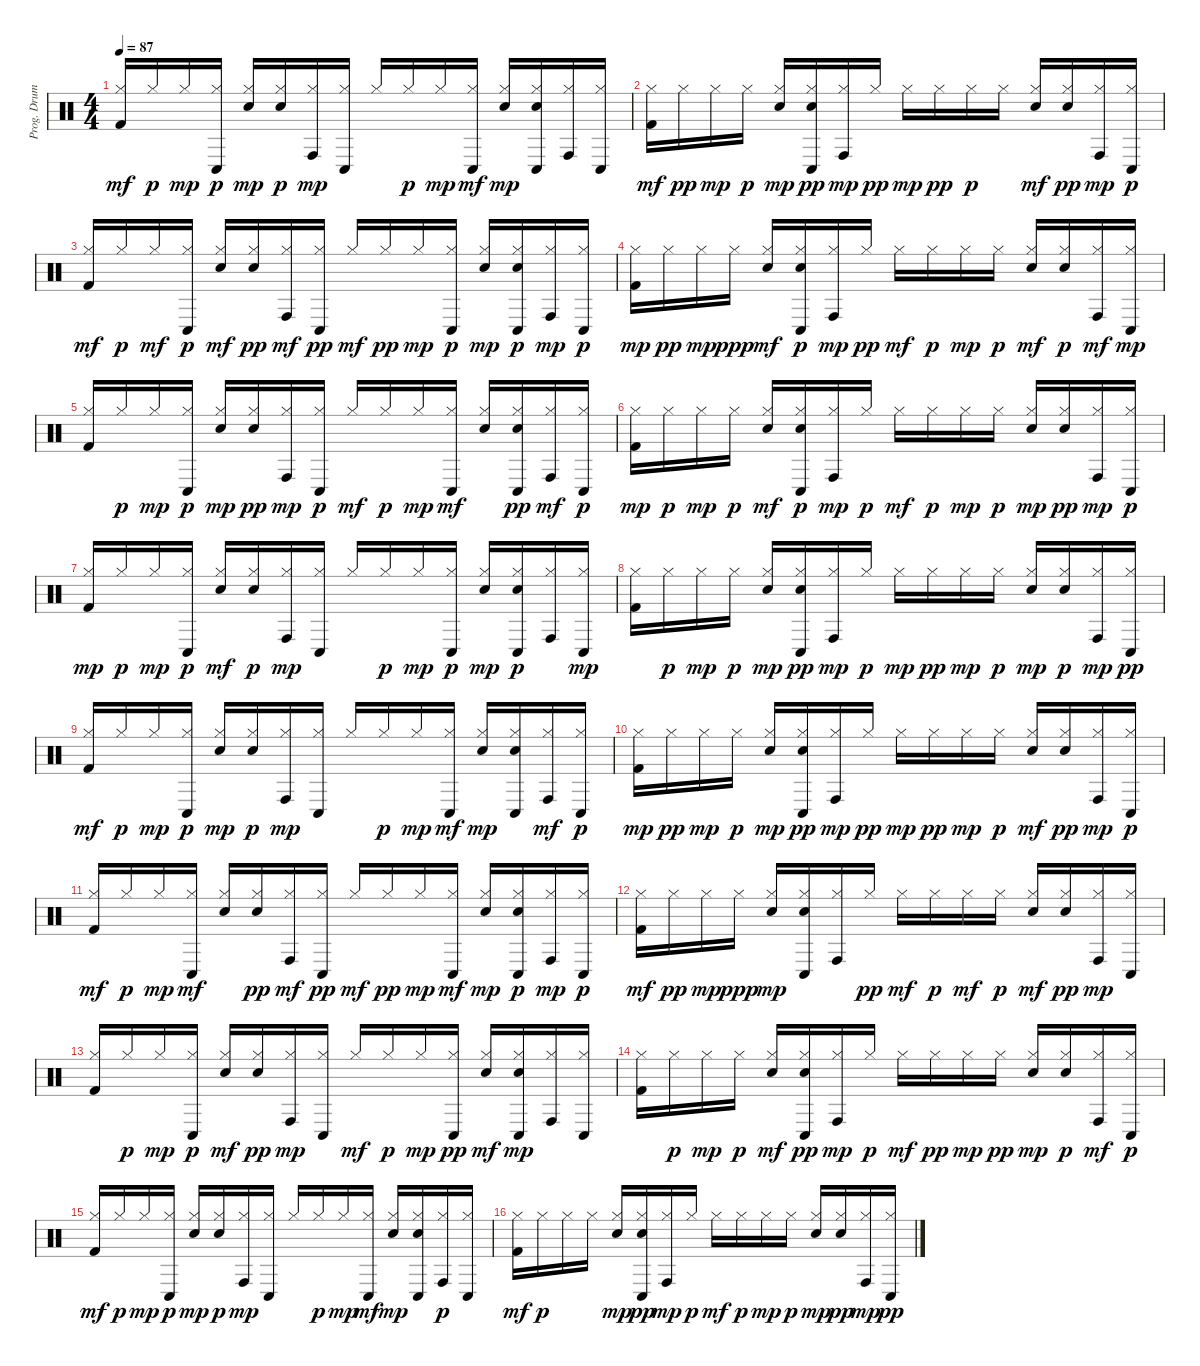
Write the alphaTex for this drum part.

\track ("Prog. Drums" "Prog. Drum") {instrument percussion}
\staff {score}
\articulation defaults
\ts (4 4)
\tempo 87
\clef neutral
\ks c
("Hi-Hat (closed)" "Kick (hit) 2").16{dy mf} "Hi-Hat (closed)".16{dy p} "Hi-Hat (closed)".16{dy mp} ("Conga low (hit)" "Hi-Hat (closed)").16{dy p} ("Snare (hit) 2" "Hi-Hat (closed)").16{dy mp} ("Snare (hit) 2" "Hi-Hat (closed)").16{dy p} ("Conga high (hit)" "Hi-Hat (closed)").16{dy mp} ("Hi-Hat (closed)" "Conga low (hit)").16 "Hi-Hat (closed)".16 "Hi-Hat (closed)".16{dy p} "Hi-Hat (closed)".16{dy mp} ("Hi-Hat (closed)" "Conga low (hit)").16{dy mf} ("Snare (hit) 2" "Hi-Hat (closed)").16{dy mp} ("Hi-Hat (closed)" "Snare (hit) 2" "Conga low (hit)").16 ("Conga high (hit)" "Hi-Hat (closed)").16 ("Hi-Hat (closed)" "Conga low (hit)").16 |
("Hi-Hat (closed)" "Kick (hit) 2").16{dy mf} "Hi-Hat (closed)".16{dy pp} "Hi-Hat (closed)".16{dy mp} "Hi-Hat (closed)".16{dy p} ("Snare (hit) 2" "Hi-Hat (closed)").16{dy mp} ("Snare (hit) 2" "Conga low (hit)" "Hi-Hat (closed)").16{dy pp} ("Conga high (hit)" "Hi-Hat (closed)").16{dy mp} "Hi-Hat (closed)".16{dy pp} "Hi-Hat (closed)".16{dy mp} "Hi-Hat (closed)".16{dy pp} "Hi-Hat (closed)".16{dy p} "Hi-Hat (closed)".16 ("Snare (hit) 2" "Hi-Hat (closed)").16{dy mf} ("Snare (hit) 2" "Hi-Hat (closed)").16{dy pp} ("Conga high (hit)" "Hi-Hat (closed)").16{dy mp} ("Conga low (hit)" "Hi-Hat (closed)").16{dy p} |
("Kick (hit) 2" "Hi-Hat (closed)").16{dy mf} "Hi-Hat (closed)".16{dy p} "Hi-Hat (closed)".16{dy mf} ("Conga low (hit)" "Hi-Hat (closed)").16{dy p} ("Snare (hit) 2" "Hi-Hat (closed)").16{dy mf} ("Snare (hit) 2" "Hi-Hat (closed)").16{dy pp} ("Conga high (hit)" "Hi-Hat (closed)").16{dy mf} ("Conga low (hit)" "Hi-Hat (closed)").16{dy pp} "Hi-Hat (closed)".16{dy mf} "Hi-Hat (closed)".16{dy pp} "Hi-Hat (closed)".16{dy mp} ("Conga low (hit)" "Hi-Hat (closed)").16{dy p} ("Snare (hit) 2" "Hi-Hat (closed)").16{dy mp} ("Snare (hit) 2" "Conga low (hit)" "Hi-Hat (closed)").16{dy p} ("Conga high (hit)" "Hi-Hat (closed)").16{dy mp} ("Conga low (hit)" "Hi-Hat (closed)").16{dy p} |
("Kick (hit) 2" "Hi-Hat (closed)").16{dy mp} "Hi-Hat (closed)".16{dy pp} "Hi-Hat (closed)".16{dy mp} "Hi-Hat (closed)".16{dy ppp} ("Hi-Hat (closed)" "Snare (hit) 2").16{dy mf} ("Snare (hit) 2" "Conga low (hit)" "Hi-Hat (closed)").16{dy p} ("Conga high (hit)" "Hi-Hat (closed)").16{dy mp} "Hi-Hat (closed)".16{dy pp} "Hi-Hat (closed)".16{dy mf} "Hi-Hat (closed)".16{dy p} "Hi-Hat (closed)".16{dy mp} "Hi-Hat (closed)".16{dy p} ("Hi-Hat (closed)" "Snare (hit) 2").16{dy mf} ("Snare (hit) 2" "Hi-Hat (closed)").16{dy p} ("Conga high (hit)" "Hi-Hat (closed)").16{dy mf} ("Hi-Hat (closed)" "Conga low (hit)").16{dy mp} |
("Kick (hit) 2" "Hi-Hat (closed)").16 "Hi-Hat (closed)".16{dy p} "Hi-Hat (closed)".16{dy mp} ("Conga low (hit)" "Hi-Hat (closed)").16{dy p} ("Snare (hit) 2" "Hi-Hat (closed)").16{dy mp} ("Snare (hit) 2" "Hi-Hat (closed)").16{dy pp} ("Conga high (hit)" "Hi-Hat (closed)").16{dy mp} ("Conga low (hit)" "Hi-Hat (closed)").16{dy p} "Hi-Hat (closed)".16{dy mf} "Hi-Hat (closed)".16{dy p} "Hi-Hat (closed)".16{dy mp} ("Hi-Hat (closed)" "Conga low (hit)").16{dy mf} ("Snare (hit) 2" "Hi-Hat (closed)").16 ("Snare (hit) 2" "Conga low (hit)" "Hi-Hat (closed)").16{dy pp} ("Hi-Hat (closed)" "Conga high (hit)").16{dy mf} ("Conga low (hit)" "Hi-Hat (closed)").16{dy p} |
("Kick (hit) 2" "Hi-Hat (closed)").16{dy mp} "Hi-Hat (closed)".16{dy p} "Hi-Hat (closed)".16{dy mp} "Hi-Hat (closed)".16{dy p} ("Hi-Hat (closed)" "Snare (hit) 2").16{dy mf} ("Snare (hit) 2" "Conga low (hit)" "Hi-Hat (closed)").16{dy p} ("Conga high (hit)" "Hi-Hat (closed)").16{dy mp} "Hi-Hat (closed)".16{dy p} "Hi-Hat (closed)".16{dy mf} "Hi-Hat (closed)".16{dy p} "Hi-Hat (closed)".16{dy mp} "Hi-Hat (closed)".16{dy p} ("Snare (hit) 2" "Hi-Hat (closed)").16{dy mp} ("Hi-Hat (closed)" "Snare (hit) 2").16{dy pp} ("Conga high (hit)" "Hi-Hat (closed)").16{dy mp} ("Conga low (hit)" "Hi-Hat (closed)").16{dy p} |
("Kick (hit) 2" "Hi-Hat (closed)").16{dy mp} "Hi-Hat (closed)".16{dy p} "Hi-Hat (closed)".16{dy mp} ("Conga low (hit)" "Hi-Hat (closed)").16{dy p} ("Snare (hit) 2" "Hi-Hat (closed)").16{dy mf} ("Snare (hit) 2" "Hi-Hat (closed)").16{dy p} ("Conga high (hit)" "Hi-Hat (closed)").16{dy mp} ("Hi-Hat (closed)" "Conga low (hit)").16 "Hi-Hat (closed)".16 "Hi-Hat (closed)".16{dy p} "Hi-Hat (closed)".16{dy mp} ("Conga low (hit)" "Hi-Hat (closed)").16{dy p} ("Snare (hit) 2" "Hi-Hat (closed)").16{dy mp} ("Conga low (hit)" "Snare (hit) 2" "Hi-Hat (closed)").16{dy p} ("Conga high (hit)" "Hi-Hat (closed)").16 ("Hi-Hat (closed)" "Conga low (hit)").16{dy mp} |
("Kick (hit) 2" "Hi-Hat (closed)").16 "Hi-Hat (closed)".16{dy p} "Hi-Hat (closed)".16{dy mp} "Hi-Hat (closed)".16{dy p} ("Snare (hit) 2" "Hi-Hat (closed)").16{dy mp} ("Conga low (hit)" "Hi-Hat (closed)" "Snare (hit) 2").16{dy pp} ("Conga high (hit)" "Hi-Hat (closed)").16{dy mp} "Hi-Hat (closed)".16{dy p} "Hi-Hat (closed)".16{dy mp} "Hi-Hat (closed)".16{dy pp} "Hi-Hat (closed)".16{dy mp} "Hi-Hat (closed)".16{dy p} ("Snare (hit) 2" "Hi-Hat (closed)").16{dy mp} ("Snare (hit) 2" "Hi-Hat (closed)").16{dy p} ("Conga high (hit)" "Hi-Hat (closed)").16{dy mp} ("Conga low (hit)" "Hi-Hat (closed)").16{dy pp} |
("Kick (hit) 2" "Hi-Hat (closed)").16{dy mf} "Hi-Hat (closed)".16{dy p} "Hi-Hat (closed)".16{dy mp} ("Conga low (hit)" "Hi-Hat (closed)").16{dy p} ("Snare (hit) 2" "Hi-Hat (closed)").16{dy mp} ("Snare (hit) 2" "Hi-Hat (closed)").16{dy p} ("Conga high (hit)" "Hi-Hat (closed)").16{dy mp} ("Hi-Hat (closed)" "Conga low (hit)").16 "Hi-Hat (closed)".16 "Hi-Hat (closed)".16{dy p} "Hi-Hat (closed)".16{dy mp} ("Hi-Hat (closed)" "Conga low (hit)").16{dy mf} ("Snare (hit) 2" "Hi-Hat (closed)").16{dy mp} ("Hi-Hat (closed)" "Snare (hit) 2" "Conga low (hit)").16 ("Hi-Hat (closed)" "Conga high (hit)").16{dy mf} ("Conga low (hit)" "Hi-Hat (closed)").16{dy p} |
("Kick (hit) 2" "Hi-Hat (closed)").16{dy mp} "Hi-Hat (closed)".16{dy pp} "Hi-Hat (closed)".16{dy mp} "Hi-Hat (closed)".16{dy p} ("Snare (hit) 2" "Hi-Hat (closed)").16{dy mp} ("Conga low (hit)" "Hi-Hat (closed)" "Snare (hit) 2").16{dy pp} ("Hi-Hat (closed)" "Conga high (hit)").16{dy mp} "Hi-Hat (closed)".16{dy pp} "Hi-Hat (closed)".16{dy mp} "Hi-Hat (closed)".16{dy pp} "Hi-Hat (closed)".16{dy mp} "Hi-Hat (closed)".16{dy p} ("Snare (hit) 2" "Hi-Hat (closed)").16{dy mf} ("Snare (hit) 2" "Hi-Hat (closed)").16{dy pp} ("Conga high (hit)" "Hi-Hat (closed)").16{dy mp} ("Conga low (hit)" "Hi-Hat (closed)").16{dy p} |
("Hi-Hat (closed)" "Kick (hit) 2").16{dy mf} "Hi-Hat (closed)".16{dy p} "Hi-Hat (closed)".16{dy mp} ("Hi-Hat (closed)" "Conga low (hit)").16{dy mf} ("Snare (hit) 2" "Hi-Hat (closed)").16 ("Snare (hit) 2" "Hi-Hat (closed)").16{dy pp} ("Conga high (hit)" "Hi-Hat (closed)").16{dy mf} ("Conga low (hit)" "Hi-Hat (closed)").16{dy pp} "Hi-Hat (closed)".16{dy mf} "Hi-Hat (closed)".16{dy pp} "Hi-Hat (closed)".16{dy mp} ("Hi-Hat (closed)" "Conga low (hit)").16{dy mf} ("Snare (hit) 2" "Hi-Hat (closed)").16{dy mp} ("Snare (hit) 2" "Conga low (hit)" "Hi-Hat (closed)").16{dy p} ("Hi-Hat (closed)" "Conga high (hit)").16{dy mp} ("Conga low (hit)" "Hi-Hat (closed)").16{dy p} |
("Hi-Hat (closed)" "Kick (hit) 2").16{dy mf} "Hi-Hat (closed)".16{dy pp} "Hi-Hat (closed)".16{dy mp} "Hi-Hat (closed)".16{dy ppp} ("Snare (hit) 2" "Hi-Hat (closed)").16{dy mp} ("Hi-Hat (closed)" "Snare (hit) 2" "Conga low (hit)").16 ("Conga high (hit)" "Hi-Hat (closed)").16 "Hi-Hat (closed)".16{dy pp} "Hi-Hat (closed)".16{dy mf} "Hi-Hat (closed)".16{dy p} "Hi-Hat (closed)".16{dy mf} "Hi-Hat (closed)".16{dy p} ("Hi-Hat (closed)" "Snare (hit) 2").16{dy mf} ("Hi-Hat (closed)" "Snare (hit) 2").16{dy pp} ("Conga high (hit)" "Hi-Hat (closed)").16{dy mp} ("Hi-Hat (closed)" "Conga low (hit)").16 |
("Kick (hit) 2" "Hi-Hat (closed)").16 "Hi-Hat (closed)".16{dy p} "Hi-Hat (closed)".16{dy mp} ("Conga low (hit)" "Hi-Hat (closed)").16{dy p} ("Snare (hit) 2" "Hi-Hat (closed)").16{dy mf} ("Snare (hit) 2" "Hi-Hat (closed)").16{dy pp} ("Conga high (hit)" "Hi-Hat (closed)").16{dy mp} ("Hi-Hat (closed)" "Conga low (hit)").16 "Hi-Hat (closed)".16{dy mf} "Hi-Hat (closed)".16{dy p} "Hi-Hat (closed)".16{dy mp} ("Conga low (hit)" "Hi-Hat (closed)").16{dy pp} ("Hi-Hat (closed)" "Snare (hit) 2").16{dy mf} ("Snare (hit) 2" "Hi-Hat (closed)" "Conga low (hit)").16{dy mp} ("Conga high (hit)" "Hi-Hat (closed)").16 ("Hi-Hat (closed)" "Conga low (hit)").16 |
("Kick (hit) 2" "Hi-Hat (closed)").16 "Hi-Hat (closed)".16{dy p} "Hi-Hat (closed)".16{dy mp} "Hi-Hat (closed)".16{dy p} ("Hi-Hat (closed)" "Snare (hit) 2").16{dy mf} ("Conga low (hit)" "Hi-Hat (closed)" "Snare (hit) 2").16{dy pp} ("Conga high (hit)" "Hi-Hat (closed)").16{dy mp} "Hi-Hat (closed)".16{dy p} "Hi-Hat (closed)".16{dy mf} "Hi-Hat (closed)".16{dy pp} "Hi-Hat (closed)".16{dy mp} "Hi-Hat (closed)".16{dy pp} ("Snare (hit) 2" "Hi-Hat (closed)").16{dy mp} ("Snare (hit) 2" "Hi-Hat (closed)").16{dy p} ("Hi-Hat (closed)" "Conga high (hit)").16{dy mf} ("Conga low (hit)" "Hi-Hat (closed)").16{dy p} |
("Hi-Hat (closed)" "Kick (hit) 2").16{dy mf} "Hi-Hat (closed)".16{dy p} "Hi-Hat (closed)".16{dy mp} ("Conga low (hit)" "Hi-Hat (closed)").16{dy p} ("Snare (hit) 2" "Hi-Hat (closed)").16{dy mp} ("Snare (hit) 2" "Hi-Hat (closed)").16{dy p} ("Conga high (hit)" "Hi-Hat (closed)").16{dy mp} ("Hi-Hat (closed)" "Conga low (hit)").16 "Hi-Hat (closed)".16 "Hi-Hat (closed)".16{dy p} "Hi-Hat (closed)".16{dy mp} ("Hi-Hat (closed)" "Conga low (hit)").16{dy mf} ("Hi-Hat (closed)" "Snare (hit) 2").16{dy mp} ("Snare (hit) 2" "Hi-Hat (closed)" "Conga low (hit)").16 ("Conga high (hit)" "Hi-Hat (closed)").16{dy p} ("Conga low (hit)" "Hi-Hat (closed)").16 |
("Kick (hit) 2" "Hi-Hat (closed)").16{dy mf} "Hi-Hat (closed)".16{dy p} "Hi-Hat (closed)".16 "Hi-Hat (closed)".16 ("Hi-Hat (closed)" "Snare (hit) 2").16{dy mp} ("Conga low (hit)" "Hi-Hat (closed)" "Snare (hit) 2").16{dy pp} ("Conga high (hit)" "Hi-Hat (closed)").16{dy mp} "Hi-Hat (closed)".16{dy p} "Hi-Hat (closed)".16{dy mf} "Hi-Hat (closed)".16{dy p} "Hi-Hat (closed)".16{dy mp} "Hi-Hat (closed)".16{dy p} ("Snare (hit) 2" "Hi-Hat (closed)").16{dy mp} ("Hi-Hat (closed)" "Snare (hit) 2").16{dy pp} ("Conga high (hit)" "Hi-Hat (closed)").16{dy mp} ("Conga low (hit)" "Hi-Hat (closed)").16{dy pp}
